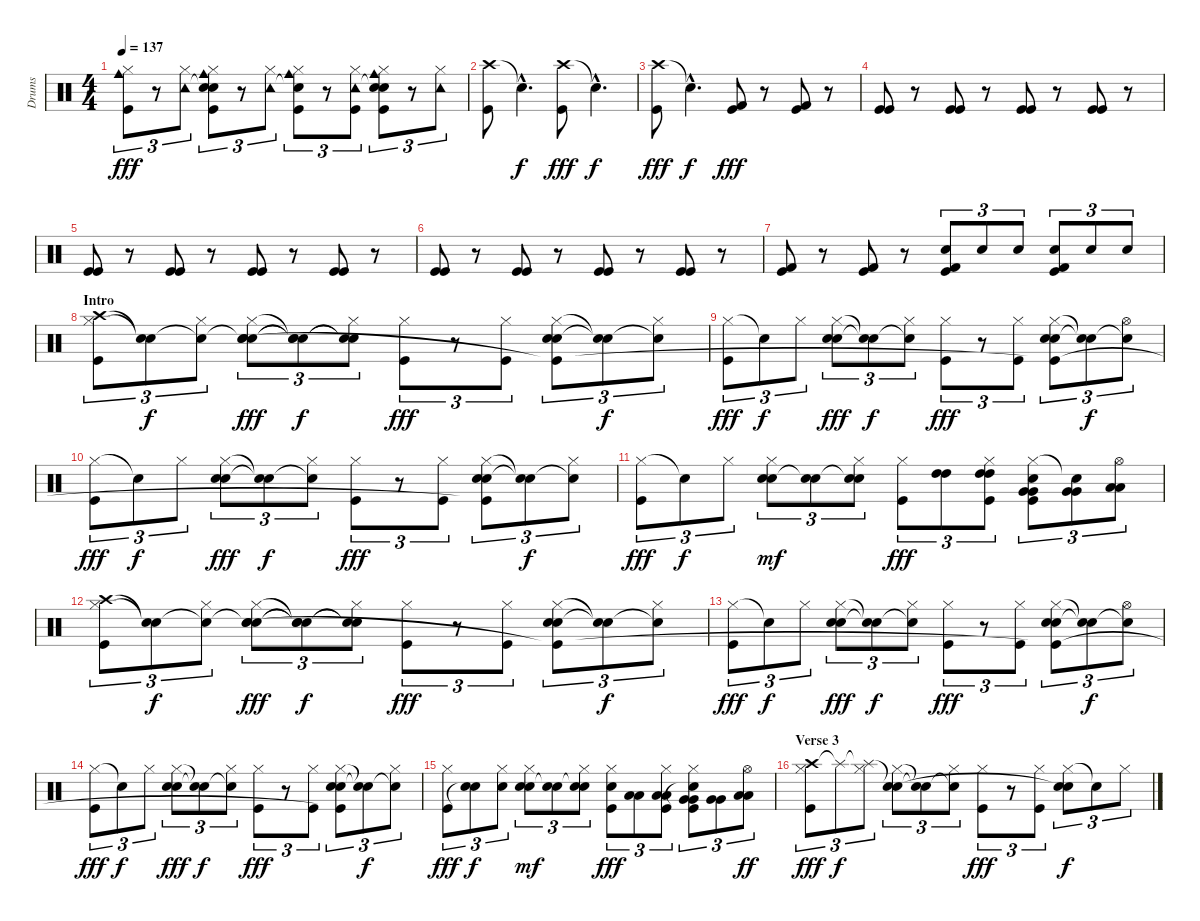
\track ("Drums" "Drums") {instrument percussion}
\staff {score}
\articulation defaults
\ts (4 4)
\tempo 137
\clef neutral
\ks c
("Cowbell medium (hit)" "Hi-Hat (closed)" "Kick (hit)").8{tu (3 2) dy fff} r.8{tu (3 2)} ("Tambourine (hit)" "Hi-Hat (closed)").8{tu (3 2)} ("Snare (hit)"{t} "Cowbell medium (hit)" "Hi-Hat (closed)" "Electric Snare (hit)" "Kick (hit)").8{tu (3 2)} r.8{tu (3 2)} ("Tambourine (hit)" "Hi-Hat (closed)").8{tu (3 2)} ("Snare (hit)"{t} "Cowbell medium (hit)" "Hi-Hat (closed)" "Kick (hit)").8{tu (3 2)} r.8{tu (3 2)} ("Tambourine (hit)" "Hi-Hat (closed)" "Kick (hit)").8{tu (3 2)} ("Snare (hit)"{t} "Cowbell medium (hit)" "Hi-Hat (closed)" "Electric Snare (hit)" "Kick (hit)").8{tu (3 2)} r.8{tu (3 2)} ("Tambourine (hit)" "Hi-Hat (closed)").8{tu (3 2)} |
("Crash high (hit)" "Kick (hit)").8 "Snare (hit)"{hac t}.4{d dy f} ("Crash high (hit)" "Kick (hit)").8{dy fff} "Snare (hit)"{hac t}.4{d dy f} |
("Crash high (hit)" "Kick (hit)").8{dy fff} "Snare (hit)"{hac t}.4{d dy f} ("Kick (hit) 2" "Kick (hit)").8{dy fff} r.8 ("Kick (hit) 2" "Kick (hit)").8 r.8 |
("Kick (hit)" "Kick (hit)").8 r.8 ("Kick (hit)" "Kick (hit)").8 r.8 ("Kick (hit)" "Kick (hit)").8 r.8 ("Kick (hit)" "Kick (hit)").8 r.8 |
("Kick (hit)" "Kick (hit)").8 r.8 ("Kick (hit)" "Kick (hit)").8 r.8 ("Kick (hit)" "Kick (hit)").8 r.8 ("Kick (hit)" "Kick (hit)").8 r.8 |
("Kick (hit)" "Kick (hit)").8 r.8 ("Kick (hit)" "Kick (hit)").8 r.8 ("Kick (hit)" "Kick (hit)").8 r.8 ("Kick (hit)" "Kick (hit)").8 r.8 |
("Kick (hit) 2" "Kick (hit)").8 r.8 ("Kick (hit) 2" "Kick (hit)").8 r.8 ("Kick (hit) 2" "Electric Snare (hit)" "Kick (hit)").8{tu (3 2)} "Electric Snare (hit)".8{tu (3 2)} "Electric Snare (hit)".8{tu (3 2)} ("Kick (hit) 2" "Electric Snare (hit)" "Kick (hit)").8{tu (3 2)} "Electric Snare (hit)".8{tu (3 2)} "Electric Snare (hit)".8{tu (3 2)} |
\section ("" "Intro")
("Crash high (hit)" "Hi-Hat (closed)" "Kick (hit)").8{tu (3 2)} ("Snare (hit)"{t} "Snare (hit)"{t}).8{tu (3 2) dy f} ("Snare (hit)"{t} "Hi-Hat (closed)").8{tu (3 2)} ("Snare (hit)"{t} "Hand Clap (hit)" "Hi-Hat (closed)" "Electric Snare (hit)").8{tu (3 2) dy fff} ("Snare (hit)"{t} "Snare (hit)"{t} "Snare (hit)"{t}).8{tu (3 2) dy f} ("Snare (hit)"{t} "Snare (hit)"{t} "Hi-Hat (closed)").8{tu (3 2)} ("Hi-Hat (closed)" "Kick (hit)").8{tu (3 2) dy fff} r.8{tu (3 2)} ("Hi-Hat (closed)" "Kick (hit)").8{tu (3 2)} ("Hand Clap (hit)" "Hi-Hat (closed)" "Electric Snare (hit)" "Kick (hit)"{t}).8{tu (3 2)} ("Snare (hit)"{t} "Snare (hit)"{t}).8{tu (3 2) dy f} ("Snare (hit)"{t} "Hi-Hat (closed)").8{tu (3 2)} |
("Hi-Hat (closed)" "Kick (hit)").8{tu (3 2) dy fff} "Snare (hit)"{t}.8{tu (3 2) dy f} "Hi-Hat (closed)".8{tu (3 2)} ("Hand Clap (hit)" "Hi-Hat (closed)" "Electric Snare (hit)").8{tu (3 2) dy fff} ("Snare (hit)"{t} "Snare (hit)"{t}).8{tu (3 2) dy f} ("Snare (hit)"{t} "Hi-Hat (closed)").8{tu (3 2)} ("Hi-Hat (closed)" "Kick (hit)").8{tu (3 2) dy fff} r.8{tu (3 2)} ("Hi-Hat (closed)" "Kick (hit)").8{tu (3 2)} ("Hand Clap (hit)" "Hi-Hat (closed)" "Electric Snare (hit)" "Kick (hit)"{t}).8{tu (3 2)} ("Snare (hit)"{t} "Snare (hit)"{t}).8{tu (3 2) dy f} ("Snare (hit)"{t} "Hi-Hat (open)").8{tu (3 2)} |
("Hi-Hat (closed)" "Kick (hit)").8{tu (3 2) dy fff} "Snare (hit)"{t}.8{tu (3 2) dy f} "Hi-Hat (closed)".8{tu (3 2)} ("Hand Clap (hit)" "Hi-Hat (closed)" "Electric Snare (hit)").8{tu (3 2) dy fff} ("Snare (hit)"{t} "Snare (hit)"{t}).8{tu (3 2) dy f} ("Snare (hit)"{t} "Hi-Hat (closed)").8{tu (3 2)} ("Hi-Hat (closed)" "Kick (hit)").8{tu (3 2) dy fff} r.8{tu (3 2)} ("Hi-Hat (closed)" "Kick (hit)").8{tu (3 2)} ("Hand Clap (hit)" "Hi-Hat (closed)" "Electric Snare (hit)" "Kick (hit)"{t}).8{tu (3 2)} ("Snare (hit)"{t} "Snare (hit)"{t}).8{tu (3 2) dy f} ("Snare (hit)"{t} "Hi-Hat (closed)").8{tu (3 2)} |
("Hi-Hat (closed)" "Kick (hit)").8{tu (3 2) dy fff} "Snare (hit)"{t}.8{tu (3 2) dy f} "Hi-Hat (closed)".8{tu (3 2)} ("Hand Clap (hit)" "Hi-Hat (closed)" "Electric Snare (hit)").8{tu (3 2) dy mf} ("Snare (hit)"{t} "Electric Snare (hit)").8{tu (3 2)} ("Snare (hit)"{t} "Hi-Hat (closed)" "Electric Snare (hit)").8{tu (3 2)} ("Hi-Hat (closed)" "Kick (hit)").8{tu (3 2) dy fff} ("High Tom (hit)" "High Tom (hit)").8{tu (3 2)} ("High Tom (hit)" "High Tom (hit)" "Hi-Hat (closed)" "Kick (hit)").8{tu (3 2)} ("Very Low Tom (hit)" "Very Low Tom (hit)" "Hi-Hat (closed)" "Electric Snare (hit)" "Kick (hit)").8{tu (3 2)} ("Very Low Tom (hit)" "Very Low Tom (hit)" "Snare (hit)"{t}).8{tu (3 2)} ("Low Floor Tom (hit)" "Low Floor Tom (hit)" "Hi-Hat (open)").8{tu (3 2)} |
("Crash high (hit)" "Hi-Hat (closed)" "Kick (hit)").8{tu (3 2)} ("Snare (hit)"{t} "Snare (hit)"{t}).8{tu (3 2) dy f} ("Snare (hit)"{t} "Hi-Hat (closed)").8{tu (3 2)} ("Snare (hit)"{t} "Hand Clap (hit)" "Hi-Hat (closed)" "Electric Snare (hit)").8{tu (3 2) dy fff} ("Snare (hit)"{t} "Snare (hit)"{t} "Snare (hit)"{t}).8{tu (3 2) dy f} ("Snare (hit)"{t} "Snare (hit)"{t} "Hi-Hat (closed)").8{tu (3 2)} ("Hi-Hat (closed)" "Kick (hit)").8{tu (3 2) dy fff} r.8{tu (3 2)} ("Hi-Hat (closed)" "Kick (hit)").8{tu (3 2)} ("Hand Clap (hit)" "Hi-Hat (closed)" "Electric Snare (hit)" "Kick (hit)"{t}).8{tu (3 2)} ("Snare (hit)"{t} "Snare (hit)"{t}).8{tu (3 2) dy f} ("Snare (hit)"{t} "Hi-Hat (closed)").8{tu (3 2)} |
("Hi-Hat (closed)" "Kick (hit)").8{tu (3 2) dy fff} "Snare (hit)"{t}.8{tu (3 2) dy f} "Hi-Hat (closed)".8{tu (3 2)} ("Hand Clap (hit)" "Hi-Hat (closed)" "Electric Snare (hit)").8{tu (3 2) dy fff} ("Snare (hit)"{t} "Snare (hit)"{t}).8{tu (3 2) dy f} ("Snare (hit)"{t} "Hi-Hat (closed)").8{tu (3 2)} ("Hi-Hat (closed)" "Kick (hit)").8{tu (3 2) dy fff} r.8{tu (3 2)} ("Hi-Hat (closed)" "Kick (hit)").8{tu (3 2)} ("Hand Clap (hit)" "Hi-Hat (closed)" "Electric Snare (hit)" "Kick (hit)"{t}).8{tu (3 2)} ("Snare (hit)"{t} "Snare (hit)"{t}).8{tu (3 2) dy f} ("Snare (hit)"{t} "Hi-Hat (open)").8{tu (3 2)} |
("Hi-Hat (closed)" "Kick (hit)").8{tu (3 2) dy fff} "Snare (hit)"{t}.8{tu (3 2) dy f} "Hi-Hat (closed)".8{tu (3 2)} ("Hand Clap (hit)" "Hi-Hat (closed)" "Electric Snare (hit)").8{tu (3 2) dy fff} ("Snare (hit)"{t} "Snare (hit)"{t}).8{tu (3 2) dy f} ("Snare (hit)"{t} "Hi-Hat (closed)").8{tu (3 2)} ("Hi-Hat (closed)" "Kick (hit)").8{tu (3 2) dy fff} r.8{tu (3 2)} ("Hi-Hat (closed)" "Kick (hit)").8{tu (3 2)} ("Hand Clap (hit)" "Hi-Hat (closed)" "Electric Snare (hit)" "Kick (hit)"{t}).8{tu (3 2)} ("Snare (hit)"{t} "Snare (hit)"{t}).8{tu (3 2) dy f} ("Snare (hit)"{t} "Hi-Hat (closed)").8{tu (3 2)} |
("Hi-Hat (closed)" "Kick (hit)").8{tu (3 2) dy fff} ("Electric Snare (hit)" "Snare (hit)"{t}).8{tu (3 2) dy f} ("Hi-Hat (closed)" "Electric Snare (hit)").8{tu (3 2)} ("Hand Clap (hit)" "Hi-Hat (closed)" "Electric Snare (hit)").8{tu (3 2) dy mf} ("Snare (hit)"{t} "Electric Snare (hit)").8{tu (3 2)} ("Snare (hit)"{t} "Hi-Hat (closed)" "Electric Snare (hit)").8{tu (3 2)} ("Hi-Hat (closed)" "Electric Snare (hit)" "Kick (hit)").8{tu (3 2) dy fff} ("Low Tom (hit)" "Low Tom (hit)").8{tu (3 2)} ("Low Tom (hit)" "Hi-Hat (closed)" "Low Tom (hit)" "Kick (hit)").8{tu (3 2)} ("Very Low Tom (hit)" "Very Low Tom (hit)" "Hi-Hat (closed)" "Electric Snare (hit)"{t} "Kick (hit)").8{tu (3 2)} ("Very Low Tom (hit)" "Very Low Tom (hit)").8{tu (3 2)} ("Low Floor Tom (hit)" "Low Floor Tom (hit)" "Hi-Hat (open)").8{tu (3 2) dy ff} |
\section ("" "Verse 3")
("Crash high (hit)" "Hi-Hat (closed)" "Kick (hit)").8{tu (3 2) dy fff} "Splash (hit)"{t}.8{tu (3 2) dy f} ("Splash (hit)"{t} "Hi-Hat (closed)").8{tu (3 2)} ("Snare (hit)"{t} "Hi-Hat (closed)" "Electric Snare (hit)").8{tu (3 2)} ("Snare (hit)"{t} "Electric Snare (hit)"{t}).8{tu (3 2)} ("Snare (hit)"{t} "Hi-Hat (closed)").8{tu (3 2)} ("Hi-Hat (closed)" "Kick (hit)").8{tu (3 2) dy fff} r.8{tu (3 2)} ("Hi-Hat (closed)" "Kick (hit)").8{tu (3 2)} ("Hi-Hat (closed)" "Electric Snare (hit)" "Snare (hit)"{t}).8{tu (3 2) dy f} "Snare (hit)"{t}.8{tu (3 2)} "Hi-Hat (closed)".8{tu (3 2)}
